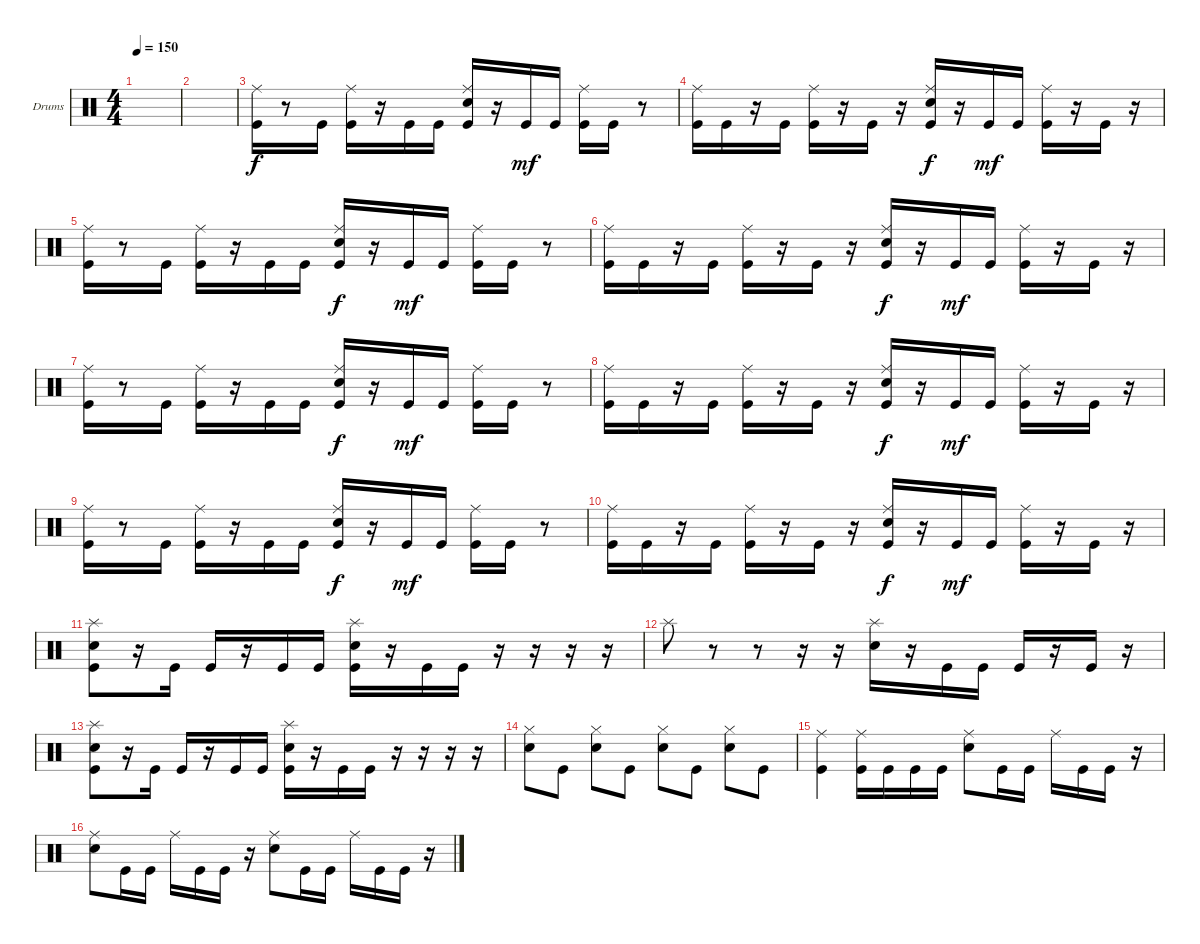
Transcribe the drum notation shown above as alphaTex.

\defaultSystemsLayout 4
\bracketExtendMode groupsimilarinstruments
\firstSystemTrackNameOrientation horizontal
\otherSystemsTrackNameOrientation horizontal
\track ("Drumkit" "Drums") {instrument percussion}
\staff {score}
\articulation defaults
\ts (4 4)
\tempo 150
\clef neutral
\ks c
|
|
("Kick (hit)" "Ride (middle)").16 r.8 "Kick (hit)".16 ("Kick (hit)" "Ride (middle)").16 r.16 "Kick (hit)".16 "Kick (hit)".16 ("Kick (hit)" "Ride (middle)" "Snare (hit) 2").16{dy f} r.16 "Kick (hit)".16{dy mf} "Kick (hit)".16 ("Kick (hit)" "Ride (middle)").16 "Kick (hit)".16 r.8 |
("Kick (hit)" "Ride (middle)").16 "Kick (hit)".16 r.16 "Kick (hit)".16 ("Kick (hit)" "Ride (middle)").16 r.16 "Kick (hit)".16 r.16 ("Kick (hit)" "Ride (middle)" "Snare (hit) 2").16{dy f} r.16 "Kick (hit)".16{dy mf} "Kick (hit)".16 ("Kick (hit)" "Ride (middle)").16 r.16 "Kick (hit)".16 r.16 |
("Kick (hit)" "Ride (middle)").16 r.8 "Kick (hit)".16 ("Kick (hit)" "Ride (middle)").16 r.16 "Kick (hit)".16 "Kick (hit)".16 ("Kick (hit)" "Ride (middle)" "Snare (hit) 2").16{dy f} r.16 "Kick (hit)".16{dy mf} "Kick (hit)".16 ("Kick (hit)" "Ride (middle)").16 "Kick (hit)".16 r.8 |
("Kick (hit)" "Ride (middle)").16 "Kick (hit)".16 r.16 "Kick (hit)".16 ("Kick (hit)" "Ride (middle)").16 r.16 "Kick (hit)".16 r.16 ("Kick (hit)" "Ride (middle)" "Snare (hit) 2").16{dy f} r.16 "Kick (hit)".16{dy mf} "Kick (hit)".16 ("Kick (hit)" "Ride (middle)").16 r.16 "Kick (hit)".16 r.16 |
("Kick (hit)" "Ride (middle)").16 r.8 "Kick (hit)".16 ("Kick (hit)" "Ride (middle)").16 r.16 "Kick (hit)".16 "Kick (hit)".16 ("Kick (hit)" "Ride (middle)" "Snare (hit) 2").16{dy f} r.16 "Kick (hit)".16{dy mf} "Kick (hit)".16 ("Kick (hit)" "Ride (middle)").16 "Kick (hit)".16 r.8 |
("Kick (hit)" "Ride (middle)").16 "Kick (hit)".16 r.16 "Kick (hit)".16 ("Kick (hit)" "Ride (middle)").16 r.16 "Kick (hit)".16 r.16 ("Kick (hit)" "Ride (middle)" "Snare (hit) 2").16{dy f} r.16 "Kick (hit)".16{dy mf} "Kick (hit)".16 ("Kick (hit)" "Ride (middle)").16 r.16 "Kick (hit)".16 r.16 |
("Kick (hit)" "Ride (middle)").16 r.8 "Kick (hit)".16 ("Kick (hit)" "Ride (middle)").16 r.16 "Kick (hit)".16 "Kick (hit)".16 ("Kick (hit)" "Ride (middle)" "Snare (hit) 2").16{dy f} r.16 "Kick (hit)".16{dy mf} "Kick (hit)".16 ("Kick (hit)" "Ride (middle)").16 "Kick (hit)".16 r.8 |
("Kick (hit)" "Ride (middle)").16 "Kick (hit)".16 r.16 "Kick (hit)".16 ("Kick (hit)" "Ride (middle)").16 r.16 "Kick (hit)".16 r.16 ("Kick (hit)" "Ride (middle)" "Snare (hit) 2").16{dy f} r.16 "Kick (hit)".16{dy mf} "Kick (hit)".16 ("Kick (hit)" "Ride (middle)").16 r.16 "Kick (hit)".16 r.16 |
("Kick (hit)" "Snare (hit) 2" "Splash (hit)").8 r.16 "Kick (hit)".16 "Kick (hit)".16 r.16 "Kick (hit)".16 "Kick (hit)".16 ("Kick (hit)" "Snare (hit) 2" "Splash (hit)").16 r.16 "Kick (hit)".16 "Kick (hit)".16 r.16 r.16 r.16 r.16 |
"Splash (hit)".8 r.8 r.8 r.16 r.16 ("Splash (hit)" "Snare (hit) 2").16 r.16 "Kick (hit)".16 "Kick (hit)".16 "Kick (hit)".16 r.16 "Kick (hit)".16 r.16 |
("Kick (hit)" "Snare (hit) 2" "Splash (hit)").8 r.16 "Kick (hit)".16 "Kick (hit)".16 r.16 "Kick (hit)".16 "Kick (hit)".16 ("Kick (hit)" "Snare (hit) 2" "Splash (hit)").16 r.16 "Kick (hit)".16 "Kick (hit)".16 r.16 r.16 r.16 r.16 |
("Snare (hit) 2" "Hi-Hat (closed)").8 "Kick (hit)".8 ("Snare (hit) 2" "Hi-Hat (closed)").8 "Kick (hit)".8 ("Snare (hit) 2" "Hi-Hat (closed)").8 "Kick (hit)".8 ("Snare (hit) 2" "Hi-Hat (closed)").8 "Kick (hit)".8 |
("Kick (hit)" "Ride (middle)").4 ("Kick (hit)" "Ride (middle)").16 "Kick (hit)".16 "Kick (hit)".16 "Kick (hit)".16 ("Snare (hit) 2" "Ride (middle)").8 "Kick (hit)".16 "Kick (hit)".16 "Ride (middle)".16 "Kick (hit)".16 "Kick (hit)".16 r.16 |
("Snare (hit) 2" "Ride (middle)").8 "Kick (hit)".16 "Kick (hit)".16 "Ride (middle)".16 "Kick (hit)".16 "Kick (hit)".16 r.16 ("Snare (hit) 2" "Ride (middle)").8 "Kick (hit)".16 "Kick (hit)".16 "Ride (middle)".16 "Kick (hit)".16 "Kick (hit)".16 r.16
